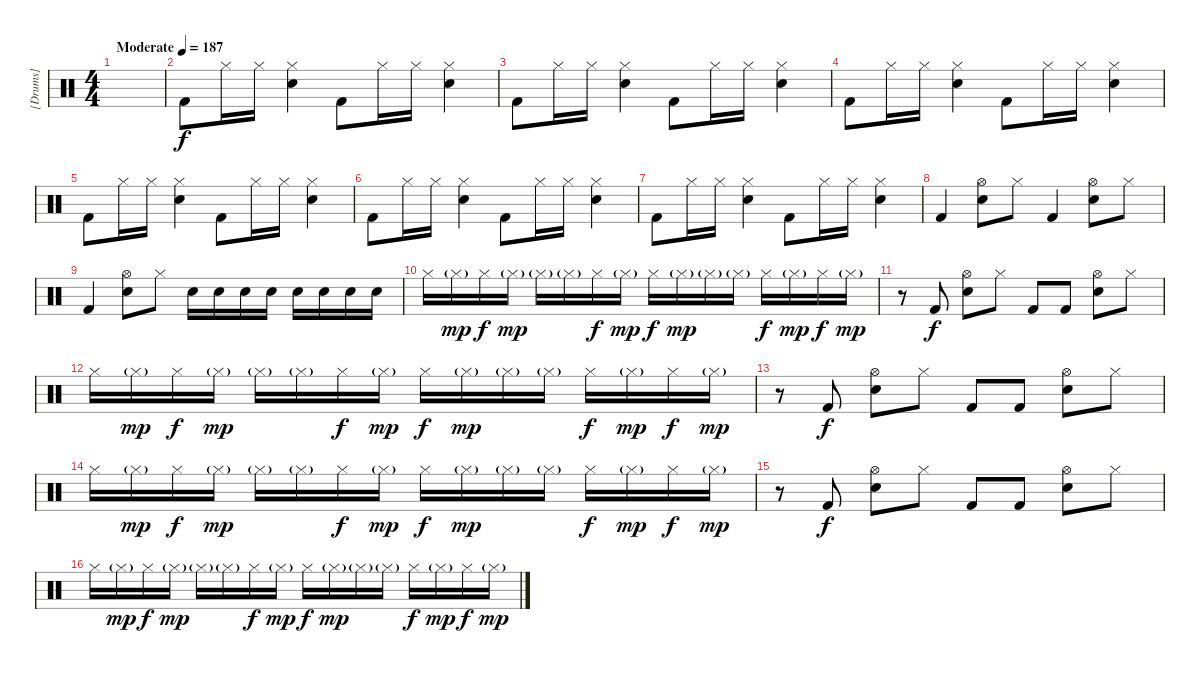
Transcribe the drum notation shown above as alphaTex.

\track ("[Drums]" "[Drums]") {instrument percussion}
\staff {score}
\articulation defaults
\ts (4 4)
\tempo (187 "Moderate")
\clef neutral
\ks c
|
"Kick (hit) 2".8 "Hi-Hat (closed)".16 "Hi-Hat (closed)".16 ("Hi-Hat (closed)" "Electric Snare (hit)").4 "Kick (hit) 2".8 "Hi-Hat (closed)".16 "Hi-Hat (closed)".16 ("Hi-Hat (closed)" "Electric Snare (hit)").4 |
"Kick (hit) 2".8 "Hi-Hat (closed)".16 "Hi-Hat (closed)".16 ("Hi-Hat (closed)" "Electric Snare (hit)").4 "Kick (hit) 2".8 "Hi-Hat (closed)".16 "Hi-Hat (closed)".16 ("Hi-Hat (closed)" "Electric Snare (hit)").4 |
"Kick (hit) 2".8 "Hi-Hat (closed)".16 "Hi-Hat (closed)".16 ("Hi-Hat (closed)" "Electric Snare (hit)").4 "Kick (hit) 2".8 "Hi-Hat (closed)".16 "Hi-Hat (closed)".16 ("Hi-Hat (closed)" "Electric Snare (hit)").4 |
"Kick (hit) 2".8 "Hi-Hat (closed)".16 "Hi-Hat (closed)".16 ("Hi-Hat (closed)" "Electric Snare (hit)").4 "Kick (hit) 2".8 "Hi-Hat (closed)".16 "Hi-Hat (closed)".16 ("Hi-Hat (closed)" "Electric Snare (hit)").4 |
"Kick (hit) 2".8 "Hi-Hat (closed)".16 "Hi-Hat (closed)".16 ("Hi-Hat (closed)" "Electric Snare (hit)").4 "Kick (hit) 2".8 "Hi-Hat (closed)".16 "Hi-Hat (closed)".16 ("Hi-Hat (closed)" "Electric Snare (hit)").4 |
"Kick (hit) 2".8 "Hi-Hat (closed)".16 "Hi-Hat (closed)".16 ("Hi-Hat (closed)" "Electric Snare (hit)").4 "Kick (hit) 2".8 "Hi-Hat (closed)".16 "Hi-Hat (closed)".16 ("Hi-Hat (closed)" "Electric Snare (hit)").4 |
"Kick (hit) 2".4 ("Hi-Hat (open)" "Electric Snare (hit)").8 "Hi-Hat (closed)".8 "Kick (hit) 2".4 ("Hi-Hat (open)" "Electric Snare (hit)").8 "Hi-Hat (closed)".8 |
"Kick (hit) 2".4 ("Hi-Hat (open)" "Electric Snare (hit)").8 "Hi-Hat (closed)".8 "Snare (hit) 2".16 "Snare (hit) 2".16 "Snare (hit) 2".16 "Snare (hit) 2".16 "Snare (hit) 2".16 "Snare (hit) 2".16 "Snare (hit) 2".16 "Snare (hit) 2".16 |
"Hi-Hat (closed)".16 "Hi-Hat (closed)"{g}.16{dy mp} "Hi-Hat (closed)".16{dy f} "Hi-Hat (closed)"{g}.16{dy mp} "Hi-Hat (closed)"{g}.16 "Hi-Hat (closed)"{g}.16 "Hi-Hat (closed)".16{dy f} "Hi-Hat (closed)"{g}.16{dy mp} "Hi-Hat (closed)".16{dy f} "Hi-Hat (closed)"{g}.16{dy mp} "Hi-Hat (closed)"{g}.16 "Hi-Hat (closed)"{g}.16 "Hi-Hat (closed)".16{dy f} "Hi-Hat (closed)"{g}.16{dy mp} "Hi-Hat (closed)".16{dy f} "Hi-Hat (closed)"{g}.16{dy mp} |
r.8 "Kick (hit) 2".8{dy f} ("Hi-Hat (open)" "Electric Snare (hit)").8 "Hi-Hat (closed)".8 "Kick (hit) 2".8 "Kick (hit) 2".8 ("Hi-Hat (open)" "Electric Snare (hit)").8 "Hi-Hat (closed)".8 |
"Hi-Hat (closed)".16 "Hi-Hat (closed)"{g}.16{dy mp} "Hi-Hat (closed)".16{dy f} "Hi-Hat (closed)"{g}.16{dy mp} "Hi-Hat (closed)"{g}.16 "Hi-Hat (closed)"{g}.16 "Hi-Hat (closed)".16{dy f} "Hi-Hat (closed)"{g}.16{dy mp} "Hi-Hat (closed)".16{dy f} "Hi-Hat (closed)"{g}.16{dy mp} "Hi-Hat (closed)"{g}.16 "Hi-Hat (closed)"{g}.16 "Hi-Hat (closed)".16{dy f} "Hi-Hat (closed)"{g}.16{dy mp} "Hi-Hat (closed)".16{dy f} "Hi-Hat (closed)"{g}.16{dy mp} |
r.8 "Kick (hit) 2".8{dy f} ("Hi-Hat (open)" "Electric Snare (hit)").8 "Hi-Hat (closed)".8 "Kick (hit) 2".8 "Kick (hit) 2".8 ("Hi-Hat (open)" "Electric Snare (hit)").8 "Hi-Hat (closed)".8 |
"Hi-Hat (closed)".16 "Hi-Hat (closed)"{g}.16{dy mp} "Hi-Hat (closed)".16{dy f} "Hi-Hat (closed)"{g}.16{dy mp} "Hi-Hat (closed)"{g}.16 "Hi-Hat (closed)"{g}.16 "Hi-Hat (closed)".16{dy f} "Hi-Hat (closed)"{g}.16{dy mp} "Hi-Hat (closed)".16{dy f} "Hi-Hat (closed)"{g}.16{dy mp} "Hi-Hat (closed)"{g}.16 "Hi-Hat (closed)"{g}.16 "Hi-Hat (closed)".16{dy f} "Hi-Hat (closed)"{g}.16{dy mp} "Hi-Hat (closed)".16{dy f} "Hi-Hat (closed)"{g}.16{dy mp} |
r.8 "Kick (hit) 2".8{dy f} ("Hi-Hat (open)" "Electric Snare (hit)").8 "Hi-Hat (closed)".8 "Kick (hit) 2".8 "Kick (hit) 2".8 ("Hi-Hat (open)" "Electric Snare (hit)").8 "Hi-Hat (closed)".8 |
"Hi-Hat (closed)".16 "Hi-Hat (closed)"{g}.16{dy mp} "Hi-Hat (closed)".16{dy f} "Hi-Hat (closed)"{g}.16{dy mp} "Hi-Hat (closed)"{g}.16 "Hi-Hat (closed)"{g}.16 "Hi-Hat (closed)".16{dy f} "Hi-Hat (closed)"{g}.16{dy mp} "Hi-Hat (closed)".16{dy f} "Hi-Hat (closed)"{g}.16{dy mp} "Hi-Hat (closed)"{g}.16 "Hi-Hat (closed)"{g}.16 "Hi-Hat (closed)".16{dy f} "Hi-Hat (closed)"{g}.16{dy mp} "Hi-Hat (closed)".16{dy f} "Hi-Hat (closed)"{g}.16{dy mp}
